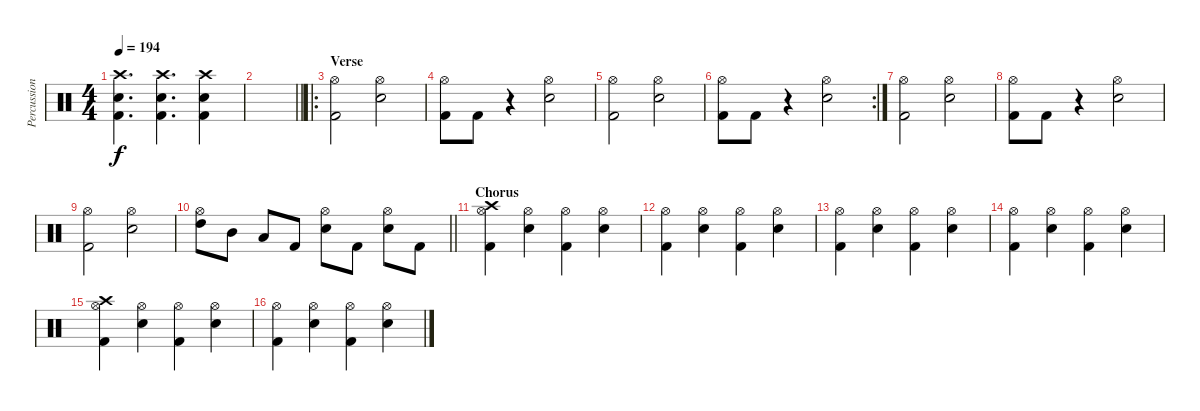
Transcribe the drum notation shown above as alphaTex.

\track ("Percussion" "Percussion") {instrument percussion}
\staff {score}
\articulation defaults
\ts (4 4)
\tempo 194
\clef neutral
\ks c
("Crash high (hit)" "Electric Snare (hit)" "Kick (hit) 2").4{d dy f} ("Crash high (hit)" "Electric Snare (hit)" "Kick (hit) 2").4{d} ("Crash high (hit)" "Electric Snare (hit)" "Kick (hit) 2").4 |
\barLineRight lightlight
|
\ro
\section ("" "Verse")
("Hi-Hat (open)" "Kick (hit) 2").2 ("Hi-Hat (open)" "Electric Snare (hit)").2 |
("Hi-Hat (open)" "Kick (hit) 2").8 "Kick (hit) 2".8 r.4 ("Hi-Hat (open)" "Electric Snare (hit)").2 |
("Hi-Hat (open)" "Kick (hit) 2").2 ("Hi-Hat (open)" "Electric Snare (hit)").2 |
\rc 2
("Hi-Hat (open)" "Kick (hit) 2").8 "Kick (hit) 2".8 r.4 ("Hi-Hat (open)" "Electric Snare (hit)").2 |
("Hi-Hat (open)" "Kick (hit) 2").2 ("Hi-Hat (open)" "Electric Snare (hit)").2 |
("Hi-Hat (open)" "Kick (hit) 2").8 "Kick (hit) 2".8 r.4 ("Hi-Hat (open)" "Electric Snare (hit)").2 |
("Hi-Hat (open)" "Kick (hit) 2").2 ("Hi-Hat (open)" "Electric Snare (hit)").2 |
\barLineRight lightlight
("Hi-Hat (open)" "High Tom (hit)").8 "Mid Tom (hit)".8 "Low Tom (hit)".8 "Kick (hit) 2".8 ("Hi-Hat (open)" "Electric Snare (hit)").8 "Kick (hit) 2".8 ("Hi-Hat (open)" "Electric Snare (hit)").8 "Kick (hit) 2".8 |
\section ("" "Chorus")
("Crash high (hit)" "Hi-Hat (open)" "Kick (hit) 2").4 ("Hi-Hat (open)" "Electric Snare (hit)").4 ("Hi-Hat (open)" "Kick (hit) 2").4 ("Hi-Hat (open)" "Electric Snare (hit)").4 |
("Hi-Hat (open)" "Kick (hit) 2").4 ("Hi-Hat (open)" "Electric Snare (hit)").4 ("Hi-Hat (open)" "Kick (hit) 2").4 ("Hi-Hat (open)" "Electric Snare (hit)").4 |
("Hi-Hat (open)" "Kick (hit) 2").4 ("Hi-Hat (open)" "Electric Snare (hit)").4 ("Hi-Hat (open)" "Kick (hit) 2").4 ("Hi-Hat (open)" "Electric Snare (hit)").4 |
("Hi-Hat (open)" "Kick (hit) 2").4 ("Hi-Hat (open)" "Electric Snare (hit)").4 ("Hi-Hat (open)" "Kick (hit) 2").4 ("Hi-Hat (open)" "Electric Snare (hit)").4 |
("Crash high (hit)" "Hi-Hat (open)" "Kick (hit) 2").4 ("Hi-Hat (open)" "Electric Snare (hit)").4 ("Hi-Hat (open)" "Kick (hit) 2").4 ("Hi-Hat (open)" "Electric Snare (hit)").4 |
("Hi-Hat (open)" "Kick (hit) 2").4 ("Hi-Hat (open)" "Electric Snare (hit)").4 ("Hi-Hat (open)" "Kick (hit) 2").4 ("Hi-Hat (open)" "Electric Snare (hit)").4
